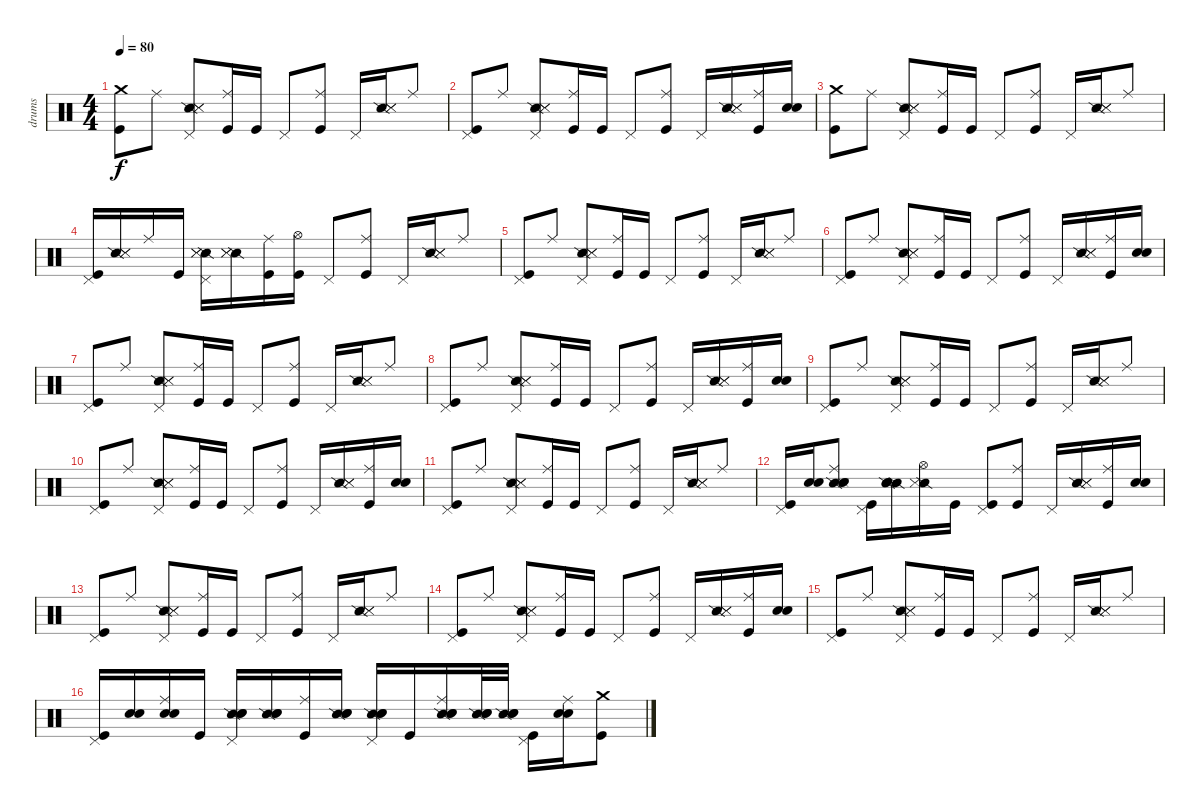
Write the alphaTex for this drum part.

\track ("drums" "drums") {instrument percussion}
\staff {score}
\articulation defaults
\ts (4 4)
\tempo 80
\clef neutral
\ks c
("Crash medium (hit)" "Kick (hit)").8{dy f} "Ride (middle)".8 ("Pedal Hi-Hat (hit)" "Snare (side stick) 2" "Metronome (hit)" "Metronome (hit)").8 ("Ride (middle)" "Kick (hit)").16 "Kick (hit)".16 "Pedal Hi-Hat (hit)".8 ("Ride (middle)" "Kick (hit)").8 "Pedal Hi-Hat (hit)".16 ("Snare (side stick) 2" "Metronome (hit)" "Metronome (hit)").16 "Ride (middle)".8 |
("Pedal Hi-Hat (hit)" "Kick (hit)").8 "Ride (middle)".8 ("Pedal Hi-Hat (hit)" "Snare (side stick) 2" "Metronome (hit)" "Metronome (hit)").8 ("Ride (middle)" "Kick (hit)").16 "Kick (hit)".16 "Pedal Hi-Hat (hit)".8 ("Ride (middle)" "Kick (hit)").8 "Pedal Hi-Hat (hit)".16 ("Snare (side stick) 2" "Metronome (hit)" "Metronome (hit)").16 ("Ride (middle)" "Kick (hit)").16 ("Snare (hit) 2" "Snare (hit) 2").16 |
("Crash medium (hit)" "Kick (hit)").8 "Ride (middle)".8 ("Pedal Hi-Hat (hit)" "Snare (side stick) 2" "Metronome (hit)" "Metronome (hit)").8 ("Ride (middle)" "Kick (hit)").16 "Kick (hit)".16 "Pedal Hi-Hat (hit)".8 ("Ride (middle)" "Kick (hit)").8 "Pedal Hi-Hat (hit)".16 ("Snare (side stick) 2" "Metronome (hit)" "Metronome (hit)").16 "Ride (middle)".8 |
("Pedal Hi-Hat (hit)" "Kick (hit)").16 ("Snare (side stick) 2" "Metronome (hit)" "Metronome (hit)").16 "Ride (middle)".16 "Kick (hit)".16 ("Pedal Hi-Hat (hit)" "Snare (side stick) 2" "Metronome (hit)" "Metronome (hit)").16 ("Snare (side stick) 2" "Metronome (hit)" "Metronome (hit)").16 ("Ride (middle)" "Kick (hit)").16 ("Hi-Hat (open)" "Kick (hit)").16 "Pedal Hi-Hat (hit)".8 ("Ride (middle)" "Kick (hit)").8 "Pedal Hi-Hat (hit)".16 ("Snare (side stick) 2" "Metronome (hit)" "Metronome (hit)").16 "Ride (middle)".8 |
("Pedal Hi-Hat (hit)" "Kick (hit)").8 "Ride (middle)".8 ("Pedal Hi-Hat (hit)" "Snare (side stick) 2" "Metronome (hit)" "Metronome (hit)").8 ("Ride (middle)" "Kick (hit)").16 "Kick (hit)".16 "Pedal Hi-Hat (hit)".8 ("Ride (middle)" "Kick (hit)").8 "Pedal Hi-Hat (hit)".16 ("Snare (side stick) 2" "Metronome (hit)" "Metronome (hit)").16 "Ride (middle)".8 |
("Pedal Hi-Hat (hit)" "Kick (hit)").8 "Ride (middle)".8 ("Pedal Hi-Hat (hit)" "Snare (side stick) 2" "Metronome (hit)" "Metronome (hit)").8 ("Ride (middle)" "Kick (hit)").16 "Kick (hit)".16 "Pedal Hi-Hat (hit)".8 ("Ride (middle)" "Kick (hit)").8 "Pedal Hi-Hat (hit)".16 ("Snare (side stick) 2" "Metronome (hit)" "Metronome (hit)").16 ("Ride (middle)" "Kick (hit)").16 ("Snare (hit) 2" "Snare (hit) 2").16 |
("Pedal Hi-Hat (hit)" "Kick (hit)").8 "Ride (middle)".8 ("Pedal Hi-Hat (hit)" "Snare (side stick) 2" "Metronome (hit)" "Metronome (hit)").8 ("Ride (middle)" "Kick (hit)").16 "Kick (hit)".16 "Pedal Hi-Hat (hit)".8 ("Ride (middle)" "Kick (hit)").8 "Pedal Hi-Hat (hit)".16 ("Snare (side stick) 2" "Metronome (hit)" "Metronome (hit)").16 "Ride (middle)".8 |
("Pedal Hi-Hat (hit)" "Kick (hit)").8 "Ride (middle)".8 ("Pedal Hi-Hat (hit)" "Snare (side stick) 2" "Metronome (hit)" "Metronome (hit)").8 ("Ride (middle)" "Kick (hit)").16 "Kick (hit)".16 "Pedal Hi-Hat (hit)".8 ("Ride (middle)" "Kick (hit)").8 "Pedal Hi-Hat (hit)".16 ("Snare (side stick) 2" "Metronome (hit)" "Metronome (hit)").16 ("Ride (middle)" "Kick (hit)").16 ("Snare (hit) 2" "Snare (hit) 2").16 |
("Pedal Hi-Hat (hit)" "Kick (hit)").8 "Ride (middle)".8 ("Pedal Hi-Hat (hit)" "Snare (side stick) 2" "Metronome (hit)" "Metronome (hit)").8 ("Ride (middle)" "Kick (hit)").16 "Kick (hit)".16 "Pedal Hi-Hat (hit)".8 ("Ride (middle)" "Kick (hit)").8 "Pedal Hi-Hat (hit)".16 ("Snare (side stick) 2" "Metronome (hit)" "Metronome (hit)").16 "Ride (middle)".8 |
("Pedal Hi-Hat (hit)" "Kick (hit)").8 "Ride (middle)".8 ("Pedal Hi-Hat (hit)" "Snare (side stick) 2" "Metronome (hit)" "Metronome (hit)").8 ("Ride (middle)" "Kick (hit)").16 "Kick (hit)".16 "Pedal Hi-Hat (hit)".8 ("Ride (middle)" "Kick (hit)").8 "Pedal Hi-Hat (hit)".16 ("Snare (side stick) 2" "Metronome (hit)" "Metronome (hit)").16 ("Ride (middle)" "Kick (hit)").16 ("Snare (hit) 2" "Snare (hit) 2").16 |
("Pedal Hi-Hat (hit)" "Kick (hit)").8 "Ride (middle)".8 ("Pedal Hi-Hat (hit)" "Snare (side stick) 2" "Metronome (hit)" "Metronome (hit)").8 ("Ride (middle)" "Kick (hit)").16 "Kick (hit)".16 "Pedal Hi-Hat (hit)".8 ("Ride (middle)" "Kick (hit)").8 "Pedal Hi-Hat (hit)".16 ("Snare (side stick) 2" "Metronome (hit)" "Metronome (hit)").16 "Ride (middle)".8 |
("Pedal Hi-Hat (hit)" "Kick (hit)").16 ("Snare (hit) 2" "Snare (hit) 2").16 ("Ride (middle)" "Snare (side stick) 2" "Metronome (hit)" "Snare (hit) 2" "Snare (hit) 2").8 ("Pedal Hi-Hat (hit)" "Kick (hit)").16 ("Snare (side stick) 2" "Snare (side stick) 2" "Snare (hit) 2" "Snare (hit) 2").16 ("Hi-Hat (open)" "Snare (side stick) 2" "Metronome (hit)").16 "Kick (hit)".16 ("Pedal Hi-Hat (hit)" "Kick (hit)").8 ("Ride (middle)" "Kick (hit)").8 "Pedal Hi-Hat (hit)".16 ("Snare (side stick) 2" "Metronome (hit)" "Metronome (hit)").16 ("Ride (middle)" "Kick (hit)").16 ("Snare (hit) 2" "Snare (hit) 2").16 |
("Pedal Hi-Hat (hit)" "Kick (hit)").8 "Ride (middle)".8 ("Pedal Hi-Hat (hit)" "Snare (side stick) 2" "Metronome (hit)" "Metronome (hit)").8 ("Ride (middle)" "Kick (hit)").16 "Kick (hit)".16 "Pedal Hi-Hat (hit)".8 ("Ride (middle)" "Kick (hit)").8 "Pedal Hi-Hat (hit)".16 ("Snare (side stick) 2" "Metronome (hit)" "Metronome (hit)").16 "Ride (middle)".8 |
("Pedal Hi-Hat (hit)" "Kick (hit)").8 "Ride (middle)".8 ("Pedal Hi-Hat (hit)" "Snare (side stick) 2" "Metronome (hit)" "Metronome (hit)").8 ("Ride (middle)" "Kick (hit)").16 "Kick (hit)".16 "Pedal Hi-Hat (hit)".8 ("Ride (middle)" "Kick (hit)").8 "Pedal Hi-Hat (hit)".16 ("Snare (side stick) 2" "Metronome (hit)" "Metronome (hit)").16 ("Ride (middle)" "Kick (hit)").16 ("Snare (hit) 2" "Snare (hit) 2").16 |
("Pedal Hi-Hat (hit)" "Kick (hit)").8 "Ride (middle)".8 ("Pedal Hi-Hat (hit)" "Snare (side stick) 2" "Metronome (hit)" "Metronome (hit)").8 ("Ride (middle)" "Kick (hit)").16 "Kick (hit)".16 "Pedal Hi-Hat (hit)".8 ("Ride (middle)" "Kick (hit)").8 "Pedal Hi-Hat (hit)".16 ("Snare (side stick) 2" "Metronome (hit)" "Metronome (hit)").16 "Ride (middle)".8 |
("Pedal Hi-Hat (hit)" "Kick (hit)").16 ("Snare (hit) 2" "Snare (hit) 2").16 ("Ride (middle)" "Snare (hit) 2" "Snare (hit) 2").16 "Kick (hit)".16 ("Pedal Hi-Hat (hit)" "Snare (side stick) 2" "Snare (hit) 2" "Snare (hit) 2").16 ("Snare (side stick) 2" "Snare (hit) 2" "Snare (hit) 2").16 ("Ride (middle)" "Kick (hit)").16 ("Snare (side stick) 2" "Snare (hit) 2" "Snare (hit) 2").16 ("Pedal Hi-Hat (hit)" "Snare (side stick) 2" "Snare (hit) 2" "Snare (hit) 2").16 "Kick (hit)".16 ("Ride (middle)" "Snare (side stick) 2" "Snare (hit) 2" "Snare (hit) 2").16 ("Snare (side stick) 2" "Snare (hit) 2" "Snare (hit) 2").32 ("Snare (side stick) 2" "Snare (hit) 2" "Snare (hit) 2").32 ("Pedal Hi-Hat (hit)" "Kick (hit)").16 ("Ride (middle)" "Snare (hit) 2" "Snare (hit) 2").16 ("Crash medium (hit)" "Kick (hit)").8
